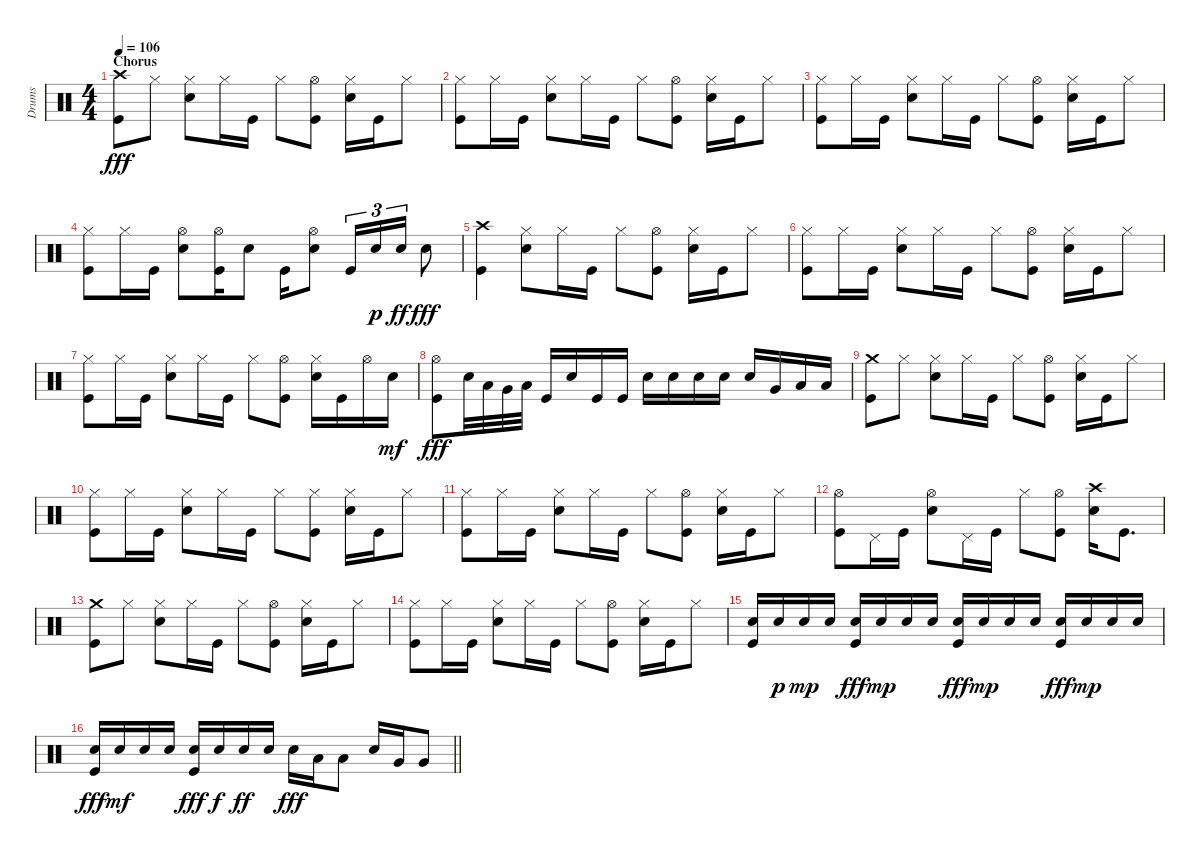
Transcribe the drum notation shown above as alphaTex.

\track ("Drums" "Drums") {instrument percussion}
\staff {score}
\articulation defaults
\ts (4 4)
\section ("" "Chorus")
\tempo 106
\clef neutral
\ks c
("Crash high (hit)" "Kick (hit)").8{dy fff} "Hi-Hat (closed)".8 ("Hi-Hat (closed)" "Snare (hit) 2").8 "Hi-Hat (closed)".16 "Kick (hit)".16 "Hi-Hat (closed)".8 ("Hi-Hat (open)" "Kick (hit)").8 ("Hi-Hat (closed)" "Snare (hit) 2").16 "Kick (hit)".16 "Hi-Hat (closed)".8 |
("Hi-Hat (closed)" "Kick (hit)").8 "Hi-Hat (closed)".16 "Kick (hit)".16 ("Hi-Hat (closed)" "Snare (hit) 2").8 "Hi-Hat (closed)".16 "Kick (hit)".16 "Hi-Hat (closed)".8 ("Hi-Hat (open)" "Kick (hit)").8 ("Hi-Hat (closed)" "Snare (hit) 2").16 "Kick (hit)".16 "Hi-Hat (closed)".8 |
("Hi-Hat (closed)" "Kick (hit)").8 "Hi-Hat (closed)".16 "Kick (hit)".16 ("Hi-Hat (closed)" "Snare (hit) 2").8 "Hi-Hat (closed)".16 "Kick (hit)".16 "Hi-Hat (closed)".8 ("Hi-Hat (open)" "Kick (hit)").8 ("Hi-Hat (closed)" "Snare (hit) 2").16 "Kick (hit)".16 "Hi-Hat (closed)".8 |
("Hi-Hat (closed)" "Kick (hit)").8 "Hi-Hat (closed)".16 "Kick (hit)".16 ("Hi-Hat (open)" "Snare (hit) 2").8 ("Hi-Hat (open)" "Kick (hit)").16 "Snare (hit) 2".8 "Kick (hit)".16 ("Hi-Hat (open)" "Snare (hit) 2").8 "Kick (hit)".16{tu (3 2)} "Snare (hit) 2".16{tu (3 2) dy p} "Snare (hit) 2".16{tu (3 2) dy ff} "Snare (hit) 2".8{dy fff} |
("Crash high (hit)" "Kick (hit)").4 ("Hi-Hat (closed)" "Snare (hit) 2").8 "Hi-Hat (closed)".16 "Kick (hit)".16 "Hi-Hat (closed)".8 ("Hi-Hat (open)" "Kick (hit)").8 ("Hi-Hat (closed)" "Snare (hit) 2").16 "Kick (hit)".16 "Hi-Hat (closed)".8 |
("Hi-Hat (closed)" "Kick (hit)").8 "Hi-Hat (closed)".16 "Kick (hit)".16 ("Hi-Hat (closed)" "Snare (hit) 2").8 "Hi-Hat (closed)".16 "Kick (hit)".16 "Hi-Hat (closed)".8 ("Hi-Hat (open)" "Kick (hit)").8 ("Hi-Hat (closed)" "Snare (hit) 2").16 "Kick (hit)".16 "Hi-Hat (closed)".8 |
("Hi-Hat (closed)" "Kick (hit)").8 "Hi-Hat (closed)".16 "Kick (hit)".16 ("Hi-Hat (closed)" "Snare (hit) 2").8 "Hi-Hat (closed)".16 "Kick (hit)".16 "Hi-Hat (closed)".8 ("Hi-Hat (open)" "Kick (hit)").8 ("Hi-Hat (closed)" "Snare (hit) 2").16 "Kick (hit)".16 "Hi-Hat (open)".16 "Snare (hit) 2".16{dy mf} |
("Hi-Hat (open)" "Kick (hit)").8{dy fff} "Snare (hit) 2".32 "Low Tom (hit)".32 "Very Low Tom (hit)".32 "Low Floor Tom (hit)".32 "Kick (hit)".16 "Snare (hit) 2".16 "Kick (hit)".16 "Kick (hit)".16 "Snare (hit) 2".16 "Snare (hit) 2".16 "Snare (hit) 2".16 "Snare (hit) 2".16 "Snare (hit) 2".16 "Very Low Tom (hit)".16 "Low Floor Tom (hit)".16 "Low Floor Tom (hit)".16 |
("Crash medium (hit)" "Kick (hit)").8 "Hi-Hat (closed)".8 ("Hi-Hat (closed)" "Snare (hit) 2").8 "Hi-Hat (closed)".16 "Kick (hit)".16 "Hi-Hat (closed)".8 ("Hi-Hat (open)" "Kick (hit)").8 ("Hi-Hat (closed)" "Snare (hit) 2").16 "Kick (hit)".16 "Hi-Hat (closed)".8 |
("Hi-Hat (closed)" "Kick (hit)").8 "Hi-Hat (closed)".16 "Kick (hit)".16 ("Hi-Hat (closed)" "Snare (hit) 2").8 "Hi-Hat (closed)".16 "Kick (hit)".16 "Hi-Hat (closed)".8 ("Hi-Hat (closed)" "Kick (hit)").8 ("Hi-Hat (closed)" "Snare (hit) 2").16 "Kick (hit)".16 "Hi-Hat (closed)".8 |
("Hi-Hat (closed)" "Kick (hit)").8 "Hi-Hat (closed)".16 "Kick (hit)".16 ("Hi-Hat (closed)" "Snare (hit) 2").8 "Hi-Hat (closed)".16 "Kick (hit)".16 "Hi-Hat (closed)".8 ("Hi-Hat (open)" "Kick (hit)").8 ("Hi-Hat (closed)" "Snare (hit) 2").16 "Kick (hit)".16 "Hi-Hat (closed)".8 |
("Hi-Hat (open)" "Kick (hit)").8 "Pedal Hi-Hat (hit)".16 "Kick (hit)".16 ("Hi-Hat (open)" "Snare (hit) 2").8 "Pedal Hi-Hat (hit)".16 "Kick (hit)".16 "Hi-Hat (closed)".8 ("Hi-Hat (open)" "Kick (hit)").8 ("Crash high (hit)" "Snare (hit) 2").16 "Kick (hit)".8{d} |
("Crash medium (hit)" "Kick (hit)").8 "Hi-Hat (closed)".8 ("Hi-Hat (closed)" "Snare (hit) 2").8 "Hi-Hat (closed)".16 "Kick (hit)".16 "Hi-Hat (closed)".8 ("Hi-Hat (open)" "Kick (hit)").8 ("Hi-Hat (closed)" "Snare (hit) 2").16 "Kick (hit)".16 "Hi-Hat (closed)".8 |
("Hi-Hat (closed)" "Kick (hit)").8 "Hi-Hat (closed)".16 "Kick (hit)".16 ("Hi-Hat (closed)" "Snare (hit) 2").8 "Hi-Hat (closed)".16 "Kick (hit)".16 "Hi-Hat (closed)".8 ("Hi-Hat (open)" "Kick (hit)").8 ("Hi-Hat (closed)" "Snare (hit) 2").16 "Kick (hit)".16 "Hi-Hat (closed)".8 |
("Snare (hit) 2" "Kick (hit)").16 "Snare (hit) 2".16{dy p} "Snare (hit) 2".16{dy mp} "Snare (hit) 2".16 ("Snare (hit) 2" "Kick (hit)").16{dy fff} "Snare (hit) 2".16{dy mp} "Snare (hit) 2".16 "Snare (hit) 2".16 ("Snare (hit) 2" "Kick (hit)").16{dy fff} "Snare (hit) 2".16{dy mp} "Snare (hit) 2".16 "Snare (hit) 2".16 ("Snare (hit) 2" "Kick (hit)").16{dy fff} "Snare (hit) 2".16{dy mp} "Snare (hit) 2".16 "Snare (hit) 2".16 |
\barLineRight lightlight
("Snare (hit) 2" "Kick (hit)").16{dy fff} "Snare (hit) 2".16{dy mf} "Snare (hit) 2".16 "Snare (hit) 2".16 ("Snare (hit) 2" "Kick (hit)").16{dy fff} "Snare (hit) 2".16{dy f} "Snare (hit) 2".16{dy ff} "Snare (hit) 2".16 "Snare (hit) 2".16{dy fff} "Low Tom (hit)".16 "Low Tom (hit)".8 "Snare (hit) 2".16 "Very Low Tom (hit)".16 "Very Low Tom (hit)".8
